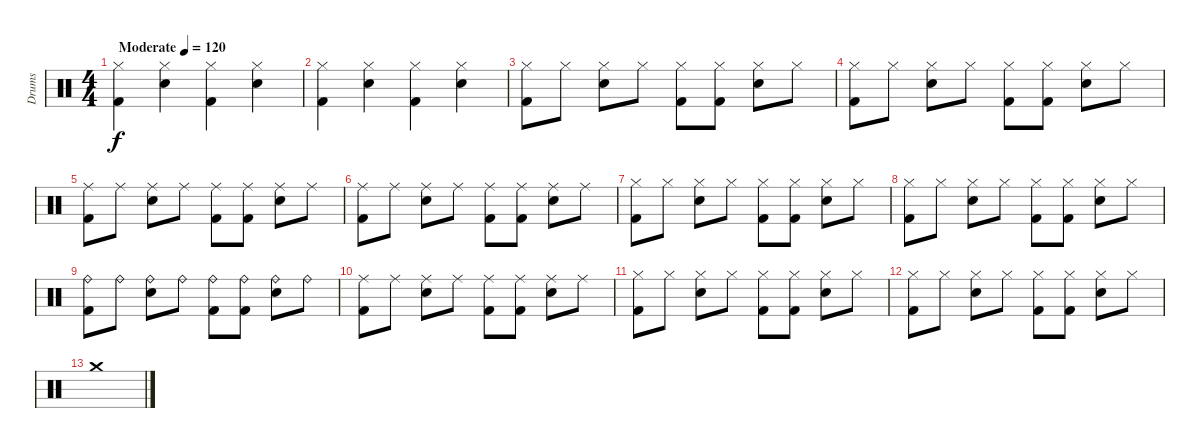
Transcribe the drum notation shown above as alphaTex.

\track ("Drums" "Drums") {instrument percussion}
\staff {score}
\articulation defaults
\ts (4 4)
\tempo (120 "Moderate")
\clef neutral
\ks c
("Hi-Hat (closed)" "Kick (hit) 2").4{dy f} ("Hi-Hat (closed)" "Snare (hit) 2").4 ("Hi-Hat (closed)" "Kick (hit) 2").4 ("Hi-Hat (closed)" "Snare (hit) 2").4 |
("Hi-Hat (closed)" "Kick (hit) 2").4 ("Hi-Hat (closed)" "Snare (hit) 2").4 ("Hi-Hat (closed)" "Kick (hit) 2").4 ("Hi-Hat (closed)" "Snare (hit) 2").4 |
("Hi-Hat (closed)" "Kick (hit) 2").8 "Hi-Hat (closed)".8 ("Hi-Hat (closed)" "Snare (hit) 2").8 "Hi-Hat (closed)".8 ("Hi-Hat (closed)" "Kick (hit) 2").8 ("Hi-Hat (closed)" "Kick (hit) 2").8 ("Hi-Hat (closed)" "Snare (hit) 2").8 "Hi-Hat (closed)".8 |
("Hi-Hat (closed)" "Kick (hit) 2").8 "Hi-Hat (closed)".8 ("Hi-Hat (closed)" "Snare (hit) 2").8 "Hi-Hat (closed)".8 ("Hi-Hat (closed)" "Kick (hit) 2").8 ("Hi-Hat (closed)" "Kick (hit) 2").8 ("Hi-Hat (closed)" "Snare (hit) 2").8 "Hi-Hat (closed)".8 |
("Ride (middle)" "Kick (hit) 2").8 "Ride (middle)".8 ("Ride (middle)" "Snare (hit) 2").8 "Ride (middle)".8 ("Ride (middle)" "Kick (hit) 2").8 ("Ride (middle)" "Kick (hit) 2").8 ("Ride (middle)" "Snare (hit) 2").8 "Ride (middle)".8 |
("Ride (middle)" "Kick (hit) 2").8 "Ride (middle)".8 ("Ride (middle)" "Snare (hit) 2").8 "Ride (middle)".8 ("Ride (middle)" "Kick (hit) 2").8 ("Ride (middle)" "Kick (hit) 2").8 ("Ride (middle)" "Snare (hit) 2").8 "Ride (middle)".8 |
("Hi-Hat (closed)" "Kick (hit) 2").8 "Hi-Hat (closed)".8 ("Hi-Hat (closed)" "Snare (hit) 2").8 "Hi-Hat (closed)".8 ("Hi-Hat (closed)" "Kick (hit) 2").8 ("Hi-Hat (closed)" "Kick (hit) 2").8 ("Hi-Hat (closed)" "Snare (hit) 2").8 "Hi-Hat (closed)".8 |
("Hi-Hat (closed)" "Kick (hit) 2").8 "Hi-Hat (closed)".8 ("Hi-Hat (closed)" "Snare (hit) 2").8 "Hi-Hat (closed)".8 ("Hi-Hat (closed)" "Kick (hit) 2").8 ("Hi-Hat (closed)" "Kick (hit) 2").8 ("Hi-Hat (closed)" "Snare (hit) 2").8 "Hi-Hat (closed)".8 |
("Ride (bell)" "Kick (hit) 2").8 "Ride (bell)".8 ("Ride (bell)" "Snare (hit) 2").8 "Ride (bell)".8 ("Ride (bell)" "Kick (hit) 2").8 ("Ride (bell)" "Kick (hit) 2").8 ("Ride (bell)" "Snare (hit) 2").8 "Ride (bell)".8 |
("Ride (middle)" "Kick (hit) 2").8 "Ride (middle)".8 ("Ride (middle)" "Snare (hit) 2").8 "Ride (middle)".8 ("Ride (middle)" "Kick (hit) 2").8 ("Ride (middle)" "Kick (hit) 2").8 ("Ride (middle)" "Snare (hit) 2").8 "Ride (middle)".8 |
("Hi-Hat (closed)" "Kick (hit) 2").8 "Hi-Hat (closed)".8 ("Hi-Hat (closed)" "Snare (hit) 2").8 "Hi-Hat (closed)".8 ("Hi-Hat (closed)" "Kick (hit) 2").8 ("Hi-Hat (closed)" "Kick (hit) 2").8 ("Hi-Hat (closed)" "Snare (hit) 2").8 "Hi-Hat (closed)".8 |
("Hi-Hat (closed)" "Kick (hit) 2").8 "Hi-Hat (closed)".8 ("Hi-Hat (closed)" "Snare (hit) 2").8 "Hi-Hat (closed)".8 ("Hi-Hat (closed)" "Kick (hit) 2").8 ("Hi-Hat (closed)" "Kick (hit) 2").8 ("Hi-Hat (closed)" "Snare (hit) 2").8 "Hi-Hat (closed)".8 |
"Crash medium (hit)".1
